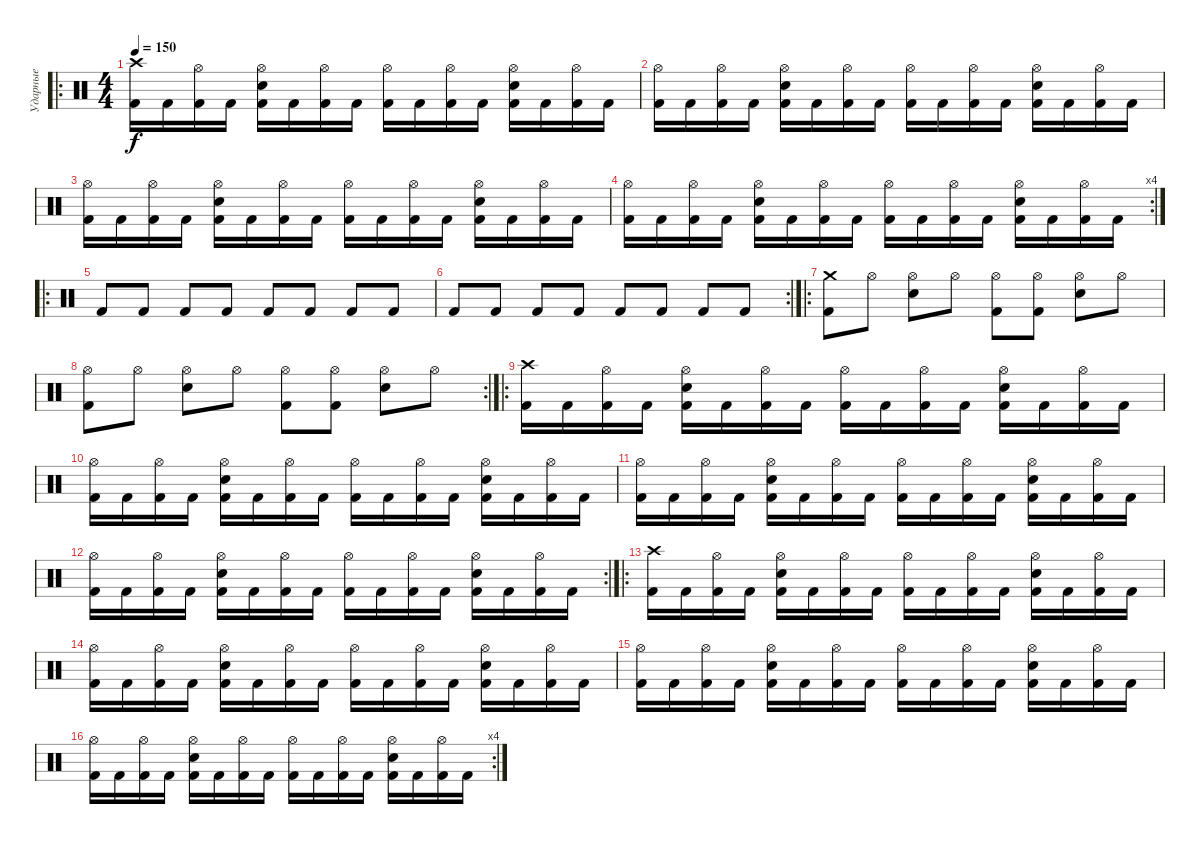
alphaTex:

\track ("Ударные" "Ударные") {instrument percussion}
\staff {score}
\articulation defaults
\ro
\ts (4 4)
\tempo 150
\clef neutral
\ks c
("Kick (hit) 2" "Crash high (hit)").16{dy f} "Kick (hit) 2".16 ("Kick (hit) 2" "Hi-Hat (open)").16 "Kick (hit) 2".16 ("Kick (hit) 2" "Electric Snare (hit)" "Hi-Hat (open)").16 "Kick (hit) 2".16 ("Kick (hit) 2" "Hi-Hat (open)").16 "Kick (hit) 2".16 ("Kick (hit) 2" "Hi-Hat (open)").16 "Kick (hit) 2".16 ("Kick (hit) 2" "Hi-Hat (open)").16 "Kick (hit) 2".16 ("Kick (hit) 2" "Electric Snare (hit)" "Hi-Hat (open)").16 "Kick (hit) 2".16 ("Kick (hit) 2" "Hi-Hat (open)").16 "Kick (hit) 2".16 |
("Kick (hit) 2" "Hi-Hat (open)").16 "Kick (hit) 2".16 ("Kick (hit) 2" "Hi-Hat (open)").16 "Kick (hit) 2".16 ("Kick (hit) 2" "Electric Snare (hit)" "Hi-Hat (open)").16 "Kick (hit) 2".16 ("Kick (hit) 2" "Hi-Hat (open)").16 "Kick (hit) 2".16 ("Kick (hit) 2" "Hi-Hat (open)").16 "Kick (hit) 2".16 ("Kick (hit) 2" "Hi-Hat (open)").16 "Kick (hit) 2".16 ("Kick (hit) 2" "Electric Snare (hit)" "Hi-Hat (open)").16 "Kick (hit) 2".16 ("Kick (hit) 2" "Hi-Hat (open)").16 "Kick (hit) 2".16 |
("Kick (hit) 2" "Hi-Hat (open)").16 "Kick (hit) 2".16 ("Kick (hit) 2" "Hi-Hat (open)").16 "Kick (hit) 2".16 ("Kick (hit) 2" "Electric Snare (hit)" "Hi-Hat (open)").16 "Kick (hit) 2".16 ("Kick (hit) 2" "Hi-Hat (open)").16 "Kick (hit) 2".16 ("Kick (hit) 2" "Hi-Hat (open)").16 "Kick (hit) 2".16 ("Kick (hit) 2" "Hi-Hat (open)").16 "Kick (hit) 2".16 ("Kick (hit) 2" "Electric Snare (hit)" "Hi-Hat (open)").16 "Kick (hit) 2".16 ("Kick (hit) 2" "Hi-Hat (open)").16 "Kick (hit) 2".16 |
\rc 4
("Kick (hit) 2" "Hi-Hat (open)").16 "Kick (hit) 2".16 ("Kick (hit) 2" "Hi-Hat (open)").16 "Kick (hit) 2".16 ("Kick (hit) 2" "Electric Snare (hit)" "Hi-Hat (open)").16 "Kick (hit) 2".16 ("Kick (hit) 2" "Hi-Hat (open)").16 "Kick (hit) 2".16 ("Kick (hit) 2" "Hi-Hat (open)").16 "Kick (hit) 2".16 ("Kick (hit) 2" "Hi-Hat (open)").16 "Kick (hit) 2".16 ("Kick (hit) 2" "Electric Snare (hit)" "Hi-Hat (open)").16 "Kick (hit) 2".16 ("Kick (hit) 2" "Hi-Hat (open)").16 "Kick (hit) 2".16 |
\ro "Kick (hit) 2".8 "Kick (hit) 2".8 "Kick (hit) 2".8 "Kick (hit) 2".8 "Kick (hit) 2".8 "Kick (hit) 2".8 "Kick (hit) 2".8 "Kick (hit) 2".8
|
\rc 2 "Kick (hit) 2".8 "Kick (hit) 2".8 "Kick (hit) 2".8 "Kick (hit) 2".8 "Kick (hit) 2".8 "Kick (hit) 2".8 "Kick (hit) 2".8 "Kick (hit) 2".8
|
\ro
("Kick (hit) 2" "Crash medium (hit)").8 "Hi-Hat (open)".8 ("Electric Snare (hit)" "Hi-Hat (open)").8 "Hi-Hat (open)".8 ("Kick (hit) 2" "Hi-Hat (open)").8 ("Kick (hit) 2" "Hi-Hat (open)").8 ("Electric Snare (hit)" "Hi-Hat (open)").8 "Hi-Hat (open)".8 |
\rc 2
("Kick (hit) 2" "Hi-Hat (open)").8 "Hi-Hat (open)".8 ("Electric Snare (hit)" "Hi-Hat (open)").8 "Hi-Hat (open)".8 ("Kick (hit) 2" "Hi-Hat (open)").8 ("Kick (hit) 2" "Hi-Hat (open)").8 ("Electric Snare (hit)" "Hi-Hat (open)").8 "Hi-Hat (open)".8 |
\ro
("Kick (hit) 2" "Crash high (hit)").16 "Kick (hit) 2".16 ("Kick (hit) 2" "Hi-Hat (open)").16 "Kick (hit) 2".16 ("Kick (hit) 2" "Electric Snare (hit)" "Hi-Hat (open)").16 "Kick (hit) 2".16 ("Kick (hit) 2" "Hi-Hat (open)").16 "Kick (hit) 2".16 ("Kick (hit) 2" "Hi-Hat (open)").16 "Kick (hit) 2".16 ("Kick (hit) 2" "Hi-Hat (open)").16 "Kick (hit) 2".16 ("Kick (hit) 2" "Electric Snare (hit)" "Hi-Hat (open)").16 "Kick (hit) 2".16 ("Kick (hit) 2" "Hi-Hat (open)").16 "Kick (hit) 2".16 |
("Kick (hit) 2" "Hi-Hat (open)").16 "Kick (hit) 2".16 ("Kick (hit) 2" "Hi-Hat (open)").16 "Kick (hit) 2".16 ("Kick (hit) 2" "Electric Snare (hit)" "Hi-Hat (open)").16 "Kick (hit) 2".16 ("Kick (hit) 2" "Hi-Hat (open)").16 "Kick (hit) 2".16 ("Kick (hit) 2" "Hi-Hat (open)").16 "Kick (hit) 2".16 ("Kick (hit) 2" "Hi-Hat (open)").16 "Kick (hit) 2".16 ("Kick (hit) 2" "Electric Snare (hit)" "Hi-Hat (open)").16 "Kick (hit) 2".16 ("Kick (hit) 2" "Hi-Hat (open)").16 "Kick (hit) 2".16 |
("Kick (hit) 2" "Hi-Hat (open)").16 "Kick (hit) 2".16 ("Kick (hit) 2" "Hi-Hat (open)").16 "Kick (hit) 2".16 ("Kick (hit) 2" "Electric Snare (hit)" "Hi-Hat (open)").16 "Kick (hit) 2".16 ("Kick (hit) 2" "Hi-Hat (open)").16 "Kick (hit) 2".16 ("Kick (hit) 2" "Hi-Hat (open)").16 "Kick (hit) 2".16 ("Kick (hit) 2" "Hi-Hat (open)").16 "Kick (hit) 2".16 ("Kick (hit) 2" "Electric Snare (hit)" "Hi-Hat (open)").16 "Kick (hit) 2".16 ("Kick (hit) 2" "Hi-Hat (open)").16 "Kick (hit) 2".16 |
\rc 2
("Kick (hit) 2" "Hi-Hat (open)").16 "Kick (hit) 2".16 ("Kick (hit) 2" "Hi-Hat (open)").16 "Kick (hit) 2".16 ("Kick (hit) 2" "Electric Snare (hit)" "Hi-Hat (open)").16 "Kick (hit) 2".16 ("Kick (hit) 2" "Hi-Hat (open)").16 "Kick (hit) 2".16 ("Kick (hit) 2" "Hi-Hat (open)").16 "Kick (hit) 2".16 ("Kick (hit) 2" "Hi-Hat (open)").16 "Kick (hit) 2".16 ("Kick (hit) 2" "Electric Snare (hit)" "Hi-Hat (open)").16 "Kick (hit) 2".16 ("Kick (hit) 2" "Hi-Hat (open)").16 "Kick (hit) 2".16 |
\ro
("Kick (hit) 2" "Crash high (hit)").16 "Kick (hit) 2".16 ("Kick (hit) 2" "Hi-Hat (open)").16 "Kick (hit) 2".16 ("Kick (hit) 2" "Electric Snare (hit)" "Hi-Hat (open)").16 "Kick (hit) 2".16 ("Kick (hit) 2" "Hi-Hat (open)").16 "Kick (hit) 2".16 ("Kick (hit) 2" "Hi-Hat (open)").16 "Kick (hit) 2".16 ("Kick (hit) 2" "Hi-Hat (open)").16 "Kick (hit) 2".16 ("Kick (hit) 2" "Electric Snare (hit)" "Hi-Hat (open)").16 "Kick (hit) 2".16 ("Kick (hit) 2" "Hi-Hat (open)").16 "Kick (hit) 2".16 |
("Kick (hit) 2" "Hi-Hat (open)").16 "Kick (hit) 2".16 ("Kick (hit) 2" "Hi-Hat (open)").16 "Kick (hit) 2".16 ("Kick (hit) 2" "Electric Snare (hit)" "Hi-Hat (open)").16 "Kick (hit) 2".16 ("Kick (hit) 2" "Hi-Hat (open)").16 "Kick (hit) 2".16 ("Kick (hit) 2" "Hi-Hat (open)").16 "Kick (hit) 2".16 ("Kick (hit) 2" "Hi-Hat (open)").16 "Kick (hit) 2".16 ("Kick (hit) 2" "Electric Snare (hit)" "Hi-Hat (open)").16 "Kick (hit) 2".16 ("Kick (hit) 2" "Hi-Hat (open)").16 "Kick (hit) 2".16 |
("Kick (hit) 2" "Hi-Hat (open)").16 "Kick (hit) 2".16 ("Kick (hit) 2" "Hi-Hat (open)").16 "Kick (hit) 2".16 ("Kick (hit) 2" "Electric Snare (hit)" "Hi-Hat (open)").16 "Kick (hit) 2".16 ("Kick (hit) 2" "Hi-Hat (open)").16 "Kick (hit) 2".16 ("Kick (hit) 2" "Hi-Hat (open)").16 "Kick (hit) 2".16 ("Kick (hit) 2" "Hi-Hat (open)").16 "Kick (hit) 2".16 ("Kick (hit) 2" "Electric Snare (hit)" "Hi-Hat (open)").16 "Kick (hit) 2".16 ("Kick (hit) 2" "Hi-Hat (open)").16 "Kick (hit) 2".16 |
\rc 4
("Kick (hit) 2" "Hi-Hat (open)").16 "Kick (hit) 2".16 ("Kick (hit) 2" "Hi-Hat (open)").16 "Kick (hit) 2".16 ("Kick (hit) 2" "Electric Snare (hit)" "Hi-Hat (open)").16 "Kick (hit) 2".16 ("Kick (hit) 2" "Hi-Hat (open)").16 "Kick (hit) 2".16 ("Kick (hit) 2" "Hi-Hat (open)").16 "Kick (hit) 2".16 ("Kick (hit) 2" "Hi-Hat (open)").16 "Kick (hit) 2".16 ("Kick (hit) 2" "Electric Snare (hit)" "Hi-Hat (open)").16 "Kick (hit) 2".16 ("Kick (hit) 2" "Hi-Hat (open)").16 "Kick (hit) 2".16
